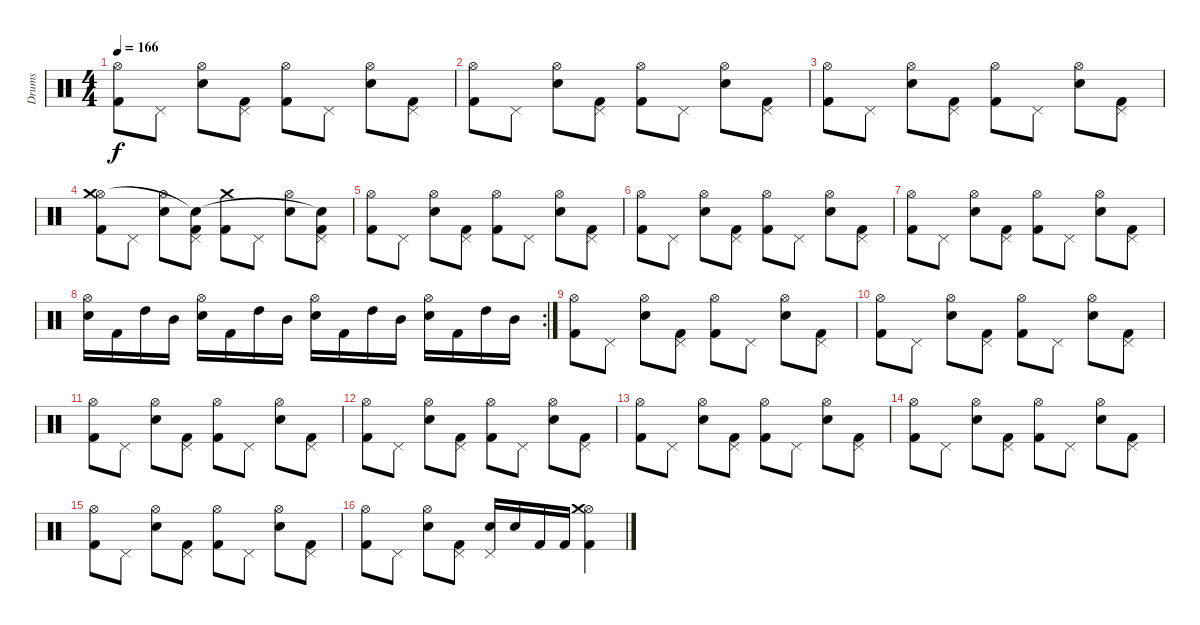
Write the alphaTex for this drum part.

\track ("Drums" "Drums") {instrument percussion}
\staff {score}
\articulation defaults
\ts (4 4)
\tempo 166
\clef neutral
\ks c
("Kick (hit) 2" "Hi-Hat (open)").8{dy f} "Pedal Hi-Hat (hit)".8 ("Snare (hit) 2" "Hi-Hat (open)").8 ("Kick (hit) 2" "Pedal Hi-Hat (hit)").8 ("Kick (hit) 2" "Hi-Hat (open)").8 "Pedal Hi-Hat (hit)".8 ("Snare (hit) 2" "Hi-Hat (open)").8 ("Kick (hit) 2" "Pedal Hi-Hat (hit)").8 |
("Kick (hit) 2" "Hi-Hat (open)").8 "Pedal Hi-Hat (hit)".8 ("Snare (hit) 2" "Hi-Hat (open)").8 ("Kick (hit) 2" "Pedal Hi-Hat (hit)").8 ("Kick (hit) 2" "Hi-Hat (open)").8 "Pedal Hi-Hat (hit)".8 ("Snare (hit) 2" "Hi-Hat (open)").8 ("Kick (hit) 2" "Pedal Hi-Hat (hit)").8 |
("Kick (hit) 2" "Hi-Hat (open)").8 "Pedal Hi-Hat (hit)".8 ("Snare (hit) 2" "Hi-Hat (open)").8 ("Kick (hit) 2" "Pedal Hi-Hat (hit)").8 ("Kick (hit) 2" "Hi-Hat (open)").8 "Pedal Hi-Hat (hit)".8 ("Snare (hit) 2" "Hi-Hat (open)").8 ("Kick (hit) 2" "Pedal Hi-Hat (hit)").8 |
("Kick (hit) 2" "Hi-Hat (open)" "Crash medium (hit)").8 "Pedal Hi-Hat (hit)".8 ("Snare (hit) 2" "Hi-Hat (open)").8 ("Kick (hit) 2" "Pedal Hi-Hat (hit)" "Snare (hit)"{t}).8 ("Kick (hit) 2" "Crash medium (hit)").8 "Pedal Hi-Hat (hit)".8 ("Snare (hit) 2" "Hi-Hat (open)").8 ("Kick (hit) 2" "Pedal Hi-Hat (hit)" "Snare (hit)"{t}).8 |
("Kick (hit) 2" "Hi-Hat (open)").8 "Pedal Hi-Hat (hit)".8 ("Snare (hit) 2" "Hi-Hat (open)").8 ("Kick (hit) 2" "Pedal Hi-Hat (hit)").8 ("Kick (hit) 2" "Hi-Hat (open)").8 "Pedal Hi-Hat (hit)".8 ("Snare (hit) 2" "Hi-Hat (open)").8 ("Kick (hit) 2" "Pedal Hi-Hat (hit)").8 |
("Kick (hit) 2" "Hi-Hat (open)").8 "Pedal Hi-Hat (hit)".8 ("Snare (hit) 2" "Hi-Hat (open)").8 ("Kick (hit) 2" "Pedal Hi-Hat (hit)").8 ("Kick (hit) 2" "Hi-Hat (open)").8 "Pedal Hi-Hat (hit)".8 ("Snare (hit) 2" "Hi-Hat (open)").8 ("Kick (hit) 2" "Pedal Hi-Hat (hit)").8 |
("Kick (hit) 2" "Hi-Hat (open)").8 "Pedal Hi-Hat (hit)".8 ("Snare (hit) 2" "Hi-Hat (open)").8 ("Kick (hit) 2" "Pedal Hi-Hat (hit)").8 ("Kick (hit) 2" "Hi-Hat (open)").8 "Pedal Hi-Hat (hit)".8 ("Snare (hit) 2" "Hi-Hat (open)").8 ("Kick (hit) 2" "Pedal Hi-Hat (hit)").8 |
\rc 2
("Snare (hit) 2" "Hi-Hat (open)").16 "Kick (hit) 2".16 "High Tom (hit)".16 "Mid Tom (hit)".16 ("Snare (hit) 2" "Hi-Hat (open)").16 "Kick (hit) 2".16 "High Tom (hit)".16 "Mid Tom (hit)".16 ("Snare (hit) 2" "Hi-Hat (open)").16 "Kick (hit) 2".16 "High Tom (hit)".16 "Mid Tom (hit)".16 ("Snare (hit) 2" "Hi-Hat (open)").16 "Kick (hit) 2".16 "High Tom (hit)".16 "Mid Tom (hit)".16 |
("Kick (hit) 2" "Hi-Hat (open)").8 "Pedal Hi-Hat (hit)".8 ("Snare (hit) 2" "Hi-Hat (open)").8 ("Kick (hit) 2" "Pedal Hi-Hat (hit)").8 ("Kick (hit) 2" "Hi-Hat (open)").8 "Pedal Hi-Hat (hit)".8 ("Snare (hit) 2" "Hi-Hat (open)").8 ("Kick (hit) 2" "Pedal Hi-Hat (hit)").8 |
("Kick (hit) 2" "Hi-Hat (open)").8 "Pedal Hi-Hat (hit)".8 ("Snare (hit) 2" "Hi-Hat (open)").8 ("Kick (hit) 2" "Pedal Hi-Hat (hit)").8 ("Kick (hit) 2" "Hi-Hat (open)").8 "Pedal Hi-Hat (hit)".8 ("Snare (hit) 2" "Hi-Hat (open)").8 ("Kick (hit) 2" "Pedal Hi-Hat (hit)").8 |
("Kick (hit) 2" "Hi-Hat (open)").8 "Pedal Hi-Hat (hit)".8 ("Snare (hit) 2" "Hi-Hat (open)").8 ("Kick (hit) 2" "Pedal Hi-Hat (hit)").8 ("Kick (hit) 2" "Hi-Hat (open)").8 "Pedal Hi-Hat (hit)".8 ("Snare (hit) 2" "Hi-Hat (open)").8 ("Kick (hit) 2" "Pedal Hi-Hat (hit)").8 |
("Kick (hit) 2" "Hi-Hat (open)").8 "Pedal Hi-Hat (hit)".8 ("Snare (hit) 2" "Hi-Hat (open)").8 ("Kick (hit) 2" "Pedal Hi-Hat (hit)").8 ("Kick (hit) 2" "Hi-Hat (open)").8 "Pedal Hi-Hat (hit)".8 ("Snare (hit) 2" "Hi-Hat (open)").8 ("Kick (hit) 2" "Pedal Hi-Hat (hit)").8 |
("Kick (hit) 2" "Hi-Hat (open)").8 "Pedal Hi-Hat (hit)".8 ("Snare (hit) 2" "Hi-Hat (open)").8 ("Kick (hit) 2" "Pedal Hi-Hat (hit)").8 ("Kick (hit) 2" "Hi-Hat (open)").8 "Pedal Hi-Hat (hit)".8 ("Snare (hit) 2" "Hi-Hat (open)").8 ("Kick (hit) 2" "Pedal Hi-Hat (hit)").8 |
("Kick (hit) 2" "Hi-Hat (open)").8 "Pedal Hi-Hat (hit)".8 ("Snare (hit) 2" "Hi-Hat (open)").8 ("Kick (hit) 2" "Pedal Hi-Hat (hit)").8 ("Kick (hit) 2" "Hi-Hat (open)").8 "Pedal Hi-Hat (hit)".8 ("Snare (hit) 2" "Hi-Hat (open)").8 ("Kick (hit) 2" "Pedal Hi-Hat (hit)").8 |
("Kick (hit) 2" "Hi-Hat (open)").8 "Pedal Hi-Hat (hit)".8 ("Snare (hit) 2" "Hi-Hat (open)").8 ("Kick (hit) 2" "Pedal Hi-Hat (hit)").8 ("Kick (hit) 2" "Hi-Hat (open)").8 "Pedal Hi-Hat (hit)".8 ("Snare (hit) 2" "Hi-Hat (open)").8 ("Kick (hit) 2" "Pedal Hi-Hat (hit)").8 |
("Kick (hit) 2" "Hi-Hat (open)").8 "Pedal Hi-Hat (hit)".8 ("Snare (hit) 2" "Hi-Hat (open)").8 ("Kick (hit) 2" "Pedal Hi-Hat (hit)").8 ("Snare (hit) 2" "Pedal Hi-Hat (hit)").16 "Snare (hit) 2".16 "Kick (hit) 2".16 "Kick (hit) 2".16 ("Kick (hit) 2" "Hi-Hat (open)" "Crash medium (hit)").4
